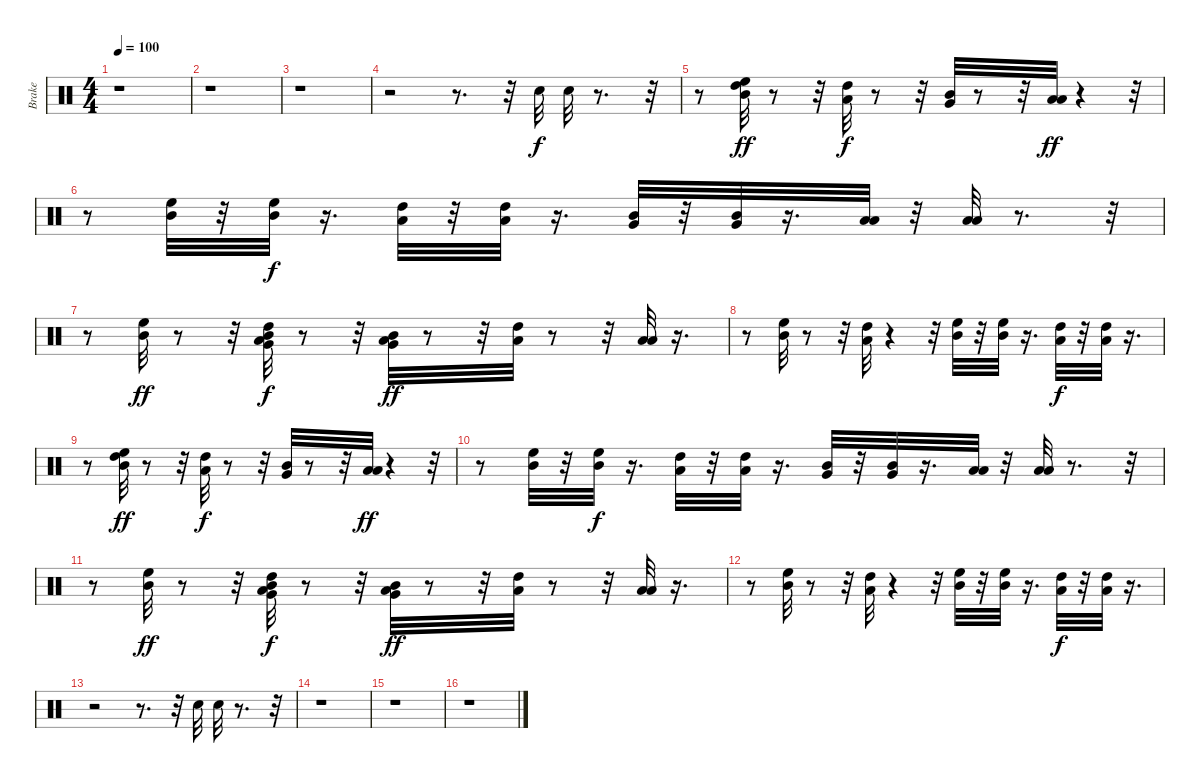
\track ("Brake" "Brake") {instrument percussion}
\staff {score}
\articulation defaults
\ts (4 4)
\tempo 100
\clef neutral
\ks c
r.1{dy f} |
r.1 |
r.1 |
r.2 r.8{d} r.32 "Metronome (bell)".32 "Metronome (bell)".32 r.8{d} r.32 |
r.8 ("High Tom (hit)" "High Floor Tom (hit)" "Mid Tom (hit)").32{dy ff} r.8 r.32 ("High Tom (hit)" "Low Tom (hit)").32{dy f} r.8 r.32 ("Mid Tom (hit)" "Very Low Tom (hit)").32 r.8 r.32 ("Low Floor Tom (hit)" "Low Tom (hit)").32{dy ff} r.4 r.32 |
r.8 ("High Floor Tom (hit)" "Mid Tom (hit)").32 r.32 ("Mid Tom (hit)" "High Floor Tom (hit)").32{dy f} r.16{d} ("Low Tom (hit)" "High Tom (hit)").32 r.32 ("Low Tom (hit)" "High Tom (hit)").32 r.16{d} ("Very Low Tom (hit)" "Mid Tom (hit)").32 r.32 ("Very Low Tom (hit)" "Mid Tom (hit)").32 r.16{d} ("Low Floor Tom (hit)" "Low Tom (hit)").32 r.32 ("Low Floor Tom (hit)" "Low Tom (hit)").32 r.8{d} r.32 |
r.8 ("Mid Tom (hit)" "High Floor Tom (hit)").32{dy ff} r.8 r.32 ("Very Low Tom (hit)" "Low Tom (hit)" "Mid Tom (hit)" "High Tom (hit)").32{dy f} r.8 r.32 ("Very Low Tom (hit)" "Mid Tom (hit)" "Low Tom (hit)").32{dy ff} r.8 r.32 ("Low Tom (hit)" "High Tom (hit)").32 r.8 r.32 ("Low Floor Tom (hit)" "Low Tom (hit)").32 r.16{d} |
r.8 ("Mid Tom (hit)" "High Floor Tom (hit)").32 r.8 r.32 ("Low Tom (hit)" "High Tom (hit)").32 r.4 r.32 ("Mid Tom (hit)" "High Floor Tom (hit)").32 r.32 ("Mid Tom (hit)" "High Floor Tom (hit)").32 r.16{d} ("High Tom (hit)" "Low Tom (hit)").32{dy f} r.32 ("Low Tom (hit)" "High Tom (hit)").32 r.16{d} |
r.8 ("High Tom (hit)" "High Floor Tom (hit)" "Mid Tom (hit)").32{dy ff} r.8 r.32 ("High Tom (hit)" "Low Tom (hit)").32{dy f} r.8 r.32 ("Mid Tom (hit)" "Very Low Tom (hit)").32 r.8 r.32 ("Low Floor Tom (hit)" "Low Tom (hit)").32{dy ff} r.4 r.32 |
r.8 ("High Floor Tom (hit)" "Mid Tom (hit)").32 r.32 ("Mid Tom (hit)" "High Floor Tom (hit)").32{dy f} r.16{d} ("Low Tom (hit)" "High Tom (hit)").32 r.32 ("Low Tom (hit)" "High Tom (hit)").32 r.16{d} ("Very Low Tom (hit)" "Mid Tom (hit)").32 r.32 ("Very Low Tom (hit)" "Mid Tom (hit)").32 r.16{d} ("Low Floor Tom (hit)" "Low Tom (hit)").32 r.32 ("Low Floor Tom (hit)" "Low Tom (hit)").32 r.8{d} r.32 |
r.8 ("Mid Tom (hit)" "High Floor Tom (hit)").32{dy ff} r.8 r.32 ("Very Low Tom (hit)" "Low Tom (hit)" "Mid Tom (hit)" "High Tom (hit)").32{dy f} r.8 r.32 ("Very Low Tom (hit)" "Mid Tom (hit)" "Low Tom (hit)").32{dy ff} r.8 r.32 ("Low Tom (hit)" "High Tom (hit)").32 r.8 r.32 ("Low Floor Tom (hit)" "Low Tom (hit)").32 r.16{d} |
r.8 ("Mid Tom (hit)" "High Floor Tom (hit)").32 r.8 r.32 ("Low Tom (hit)" "High Tom (hit)").32 r.4 r.32 ("Mid Tom (hit)" "High Floor Tom (hit)").32 r.32 ("Mid Tom (hit)" "High Floor Tom (hit)").32 r.16{d} ("High Tom (hit)" "Low Tom (hit)").32{dy f} r.32 ("Low Tom (hit)" "High Tom (hit)").32 r.16{d} |
r.2 r.8{d} r.32 "Metronome (bell)".32 "Metronome (bell)".32 r.8{d} r.32 |
r.1 |
r.1 |
r.1
